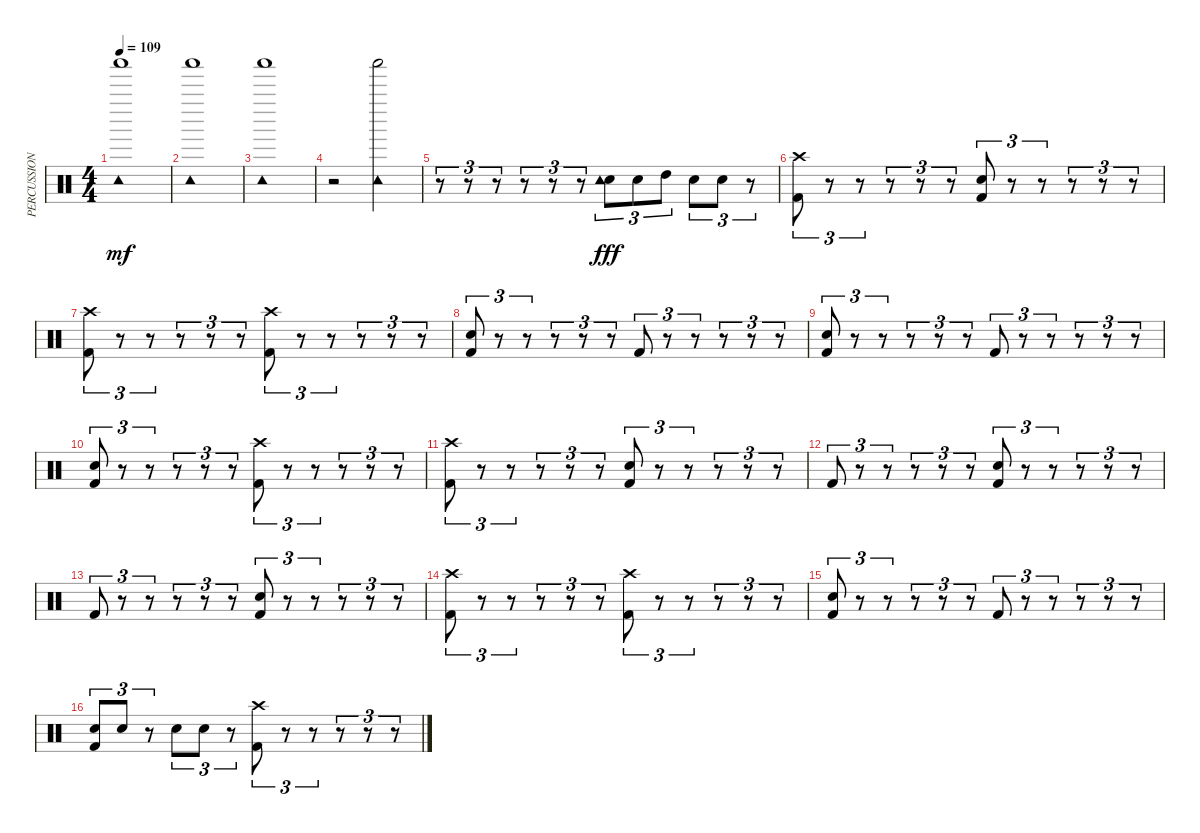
\track ("PERCUSSION" "PERCUSSION") {instrument percussion}
\staff {score}
\articulation defaults
\ts (4 4)
\tempo 109
\clef neutral
\ks c
("Tambourine (hit)" "Shaker (hit)").1{dy mf} |
("Tambourine (hit)" "Shaker (hit)").1 |
("Tambourine (hit)" "Shaker (hit)").1 |
r.2 ("Tambourine (hit)" "Shaker (hit)").2 |
r.8{tu (3 2)} r.8{tu (3 2)} r.8{tu (3 2)} r.8{tu (3 2)} r.8{tu (3 2)} r.8{tu (3 2)} ("Electric Snare (hit)" "Tambourine (hit)").8{tu (3 2) dy fff} "Snare (hit) 2".8{tu (3 2)} "High Tom (hit)".8{tu (3 2)} "Snare (hit) 2".8{tu (3 2)} "Electric Snare (hit)".8{tu (3 2)} r.8{tu (3 2)} |
("Kick (hit) 2" "Crash high (hit)").8{tu (3 2)} r.8{tu (3 2)} r.8{tu (3 2)} r.8{tu (3 2)} r.8{tu (3 2)} r.8{tu (3 2)} ("Kick (hit) 2" "Snare (hit) 2").8{tu (3 2)} r.8{tu (3 2)} r.8{tu (3 2)} r.8{tu (3 2)} r.8{tu (3 2)} r.8{tu (3 2)} |
("Kick (hit) 2" "Crash high (hit)").8{tu (3 2)} r.8{tu (3 2)} r.8{tu (3 2)} r.8{tu (3 2)} r.8{tu (3 2)} r.8{tu (3 2)} ("Kick (hit) 2" "Crash high (hit)").8{tu (3 2)} r.8{tu (3 2)} r.8{tu (3 2)} r.8{tu (3 2)} r.8{tu (3 2)} r.8{tu (3 2)} |
("Kick (hit) 2" "Snare (hit) 2").8{tu (3 2)} r.8{tu (3 2)} r.8{tu (3 2)} r.8{tu (3 2)} r.8{tu (3 2)} r.8{tu (3 2)} "Kick (hit) 2".8{tu (3 2)} r.8{tu (3 2)} r.8{tu (3 2)} r.8{tu (3 2)} r.8{tu (3 2)} r.8{tu (3 2)} |
("Kick (hit) 2" "Snare (hit) 2").8{tu (3 2)} r.8{tu (3 2)} r.8{tu (3 2)} r.8{tu (3 2)} r.8{tu (3 2)} r.8{tu (3 2)} "Kick (hit) 2".8{tu (3 2)} r.8{tu (3 2)} r.8{tu (3 2)} r.8{tu (3 2)} r.8{tu (3 2)} r.8{tu (3 2)} |
("Kick (hit) 2" "Snare (hit) 2").8{tu (3 2)} r.8{tu (3 2)} r.8{tu (3 2)} r.8{tu (3 2)} r.8{tu (3 2)} r.8{tu (3 2)} ("Kick (hit) 2" "Crash high (hit)").8{tu (3 2)} r.8{tu (3 2)} r.8{tu (3 2)} r.8{tu (3 2)} r.8{tu (3 2)} r.8{tu (3 2)} |
("Kick (hit) 2" "Crash high (hit)").8{tu (3 2)} r.8{tu (3 2)} r.8{tu (3 2)} r.8{tu (3 2)} r.8{tu (3 2)} r.8{tu (3 2)} ("Kick (hit) 2" "Snare (hit) 2").8{tu (3 2)} r.8{tu (3 2)} r.8{tu (3 2)} r.8{tu (3 2)} r.8{tu (3 2)} r.8{tu (3 2)} |
"Kick (hit) 2".8{tu (3 2)} r.8{tu (3 2)} r.8{tu (3 2)} r.8{tu (3 2)} r.8{tu (3 2)} r.8{tu (3 2)} ("Kick (hit) 2" "Snare (hit) 2").8{tu (3 2)} r.8{tu (3 2)} r.8{tu (3 2)} r.8{tu (3 2)} r.8{tu (3 2)} r.8{tu (3 2)} |
"Kick (hit) 2".8{tu (3 2)} r.8{tu (3 2)} r.8{tu (3 2)} r.8{tu (3 2)} r.8{tu (3 2)} r.8{tu (3 2)} ("Kick (hit) 2" "Snare (hit) 2").8{tu (3 2)} r.8{tu (3 2)} r.8{tu (3 2)} r.8{tu (3 2)} r.8{tu (3 2)} r.8{tu (3 2)} |
("Kick (hit) 2" "Crash high (hit)").8{tu (3 2)} r.8{tu (3 2)} r.8{tu (3 2)} r.8{tu (3 2)} r.8{tu (3 2)} r.8{tu (3 2)} ("Kick (hit) 2" "Crash high (hit)").8{tu (3 2)} r.8{tu (3 2)} r.8{tu (3 2)} r.8{tu (3 2)} r.8{tu (3 2)} r.8{tu (3 2)} |
("Kick (hit) 2" "Snare (hit) 2").8{tu (3 2)} r.8{tu (3 2)} r.8{tu (3 2)} r.8{tu (3 2)} r.8{tu (3 2)} r.8{tu (3 2)} "Kick (hit) 2".8{tu (3 2)} r.8{tu (3 2)} r.8{tu (3 2)} r.8{tu (3 2)} r.8{tu (3 2)} r.8{tu (3 2)} |
("Kick (hit) 2" "Snare (hit) 2").8{tu (3 2)} "Snare (hit) 2".8{tu (3 2)} r.8{tu (3 2)} "Snare (hit) 2".8{tu (3 2)} "Snare (hit) 2".8{tu (3 2)} r.8{tu (3 2)} ("Kick (hit) 2" "Crash high (hit)").8{tu (3 2)} r.8{tu (3 2)} r.8{tu (3 2)} r.8{tu (3 2)} r.8{tu (3 2)} r.8{tu (3 2)}
